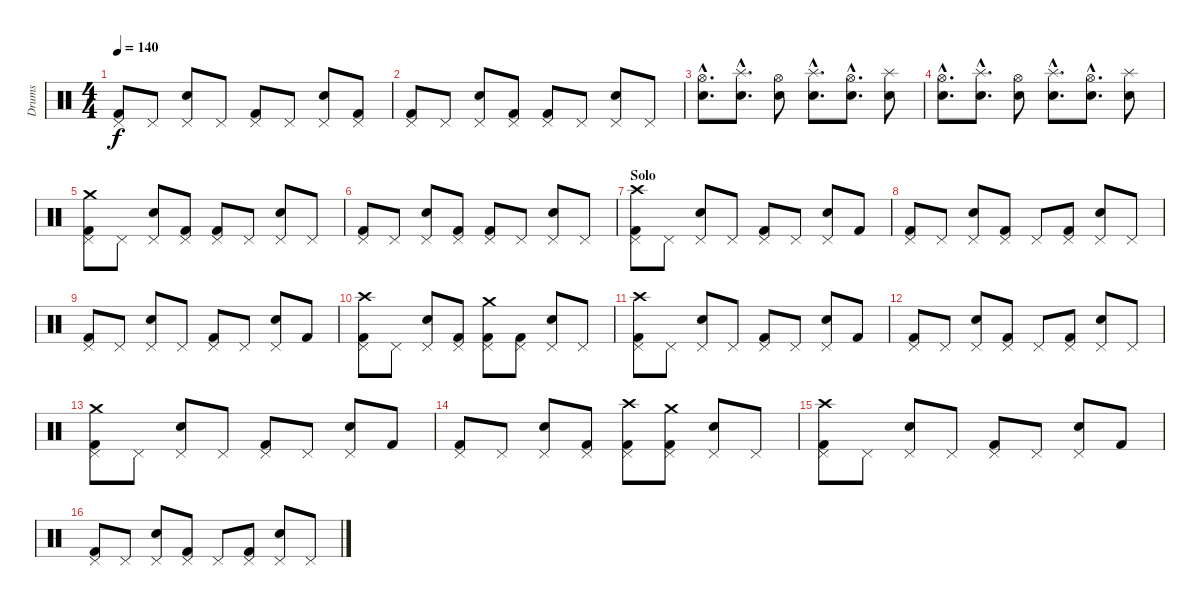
\track ("Drums" "Drums") {instrument percussion}
\staff {score}
\articulation defaults
\ts (4 4)
\tempo 140
\clef neutral
\ks c
("Kick (hit) 2" "Pedal Hi-Hat (hit)").8{dy f} "Pedal Hi-Hat (hit)".8 ("Snare (hit) 2" "Pedal Hi-Hat (hit)").8 "Pedal Hi-Hat (hit)".8 ("Kick (hit) 2" "Pedal Hi-Hat (hit)").8 "Pedal Hi-Hat (hit)".8 ("Snare (hit) 2" "Pedal Hi-Hat (hit)").8 ("Kick (hit) 2" "Pedal Hi-Hat (hit)").8 |
("Kick (hit) 2" "Pedal Hi-Hat (hit)").8 "Pedal Hi-Hat (hit)".8 ("Snare (hit) 2" "Pedal Hi-Hat (hit)").8 ("Kick (hit) 2" "Pedal Hi-Hat (hit)").8 ("Kick (hit) 2" "Pedal Hi-Hat (hit)").8 "Pedal Hi-Hat (hit)".8 ("Snare (hit) 2" "Pedal Hi-Hat (hit)").8 "Pedal Hi-Hat (hit)".8 |
("Snare (hit) 2"{hac} "Hi-Hat (open)"{hac}).8{d} ("Snare (hit) 2"{hac} "Splash (hit)"{hac}).8{d} ("Snare (hit) 2" "Hi-Hat (open)").8 ("Snare (hit) 2"{hac} "Splash (hit)"{hac}).8{d} ("Snare (hit) 2"{hac} "Hi-Hat (open)"{hac}).8{d} ("Snare (hit) 2" "Splash (hit)").8 |
("Snare (hit) 2"{hac} "Hi-Hat (open)"{hac}).8{d} ("Snare (hit) 2"{hac} "Splash (hit)"{hac}).8{d} ("Snare (hit) 2" "Hi-Hat (open)").8 ("Snare (hit) 2"{hac} "Splash (hit)"{hac}).8{d} ("Snare (hit) 2"{hac} "Hi-Hat (open)"{hac}).8{d} ("Snare (hit) 2" "Splash (hit)").8 |
("Kick (hit) 2" "Pedal Hi-Hat (hit)" "Crash medium (hit)").8 "Pedal Hi-Hat (hit)".8 ("Snare (hit) 2" "Pedal Hi-Hat (hit)").8 ("Kick (hit) 2" "Pedal Hi-Hat (hit)").8 ("Kick (hit) 2" "Pedal Hi-Hat (hit)").8 "Pedal Hi-Hat (hit)".8 ("Snare (hit) 2" "Pedal Hi-Hat (hit)").8 "Pedal Hi-Hat (hit)".8 |
("Kick (hit) 2" "Pedal Hi-Hat (hit)").8 "Pedal Hi-Hat (hit)".8 ("Snare (hit) 2" "Pedal Hi-Hat (hit)").8 ("Kick (hit) 2" "Pedal Hi-Hat (hit)").8 ("Kick (hit) 2" "Pedal Hi-Hat (hit)").8 "Pedal Hi-Hat (hit)".8 ("Snare (hit) 2" "Pedal Hi-Hat (hit)").8 "Pedal Hi-Hat (hit)".8 |
\section ("" "Solo")
("Kick (hit) 2" "Pedal Hi-Hat (hit)" "Crash high (hit)").8 "Pedal Hi-Hat (hit)".8 ("Snare (hit) 2" "Pedal Hi-Hat (hit)").8 "Pedal Hi-Hat (hit)".8 ("Kick (hit) 2" "Pedal Hi-Hat (hit)").8 "Pedal Hi-Hat (hit)".8 ("Snare (hit) 2" "Pedal Hi-Hat (hit)").8 "Kick (hit) 2".8 |
("Kick (hit) 2" "Pedal Hi-Hat (hit)").8 "Pedal Hi-Hat (hit)".8 ("Snare (hit) 2" "Pedal Hi-Hat (hit)").8 ("Kick (hit) 2" "Pedal Hi-Hat (hit)").8 "Pedal Hi-Hat (hit)".8 ("Kick (hit) 2" "Pedal Hi-Hat (hit)").8 ("Snare (hit) 2" "Pedal Hi-Hat (hit)").8 "Pedal Hi-Hat (hit)".8 |
("Kick (hit) 2" "Pedal Hi-Hat (hit)").8 "Pedal Hi-Hat (hit)".8 ("Snare (hit) 2" "Pedal Hi-Hat (hit)").8 "Pedal Hi-Hat (hit)".8 ("Kick (hit) 2" "Pedal Hi-Hat (hit)").8 "Pedal Hi-Hat (hit)".8 ("Snare (hit) 2" "Pedal Hi-Hat (hit)").8 "Kick (hit) 2".8 |
("Kick (hit) 2" "Pedal Hi-Hat (hit)" "Crash high (hit)").8 "Pedal Hi-Hat (hit)".8 ("Snare (hit) 2" "Pedal Hi-Hat (hit)").8 ("Kick (hit) 2" "Pedal Hi-Hat (hit)").8 ("Kick (hit) 2" "Pedal Hi-Hat (hit)" "Crash medium (hit)").8 ("Kick (hit) 2" "Pedal Hi-Hat (hit)").8 ("Snare (hit) 2" "Pedal Hi-Hat (hit)").8 "Pedal Hi-Hat (hit)".8 |
("Kick (hit) 2" "Pedal Hi-Hat (hit)" "Crash high (hit)").8 "Pedal Hi-Hat (hit)".8 ("Snare (hit) 2" "Pedal Hi-Hat (hit)").8 "Pedal Hi-Hat (hit)".8 ("Kick (hit) 2" "Pedal Hi-Hat (hit)").8 "Pedal Hi-Hat (hit)".8 ("Snare (hit) 2" "Pedal Hi-Hat (hit)").8 "Kick (hit) 2".8 |
("Kick (hit) 2" "Pedal Hi-Hat (hit)").8 "Pedal Hi-Hat (hit)".8 ("Snare (hit) 2" "Pedal Hi-Hat (hit)").8 ("Kick (hit) 2" "Pedal Hi-Hat (hit)").8 "Pedal Hi-Hat (hit)".8 ("Kick (hit) 2" "Pedal Hi-Hat (hit)").8 ("Snare (hit) 2" "Pedal Hi-Hat (hit)").8 "Pedal Hi-Hat (hit)".8 |
("Kick (hit) 2" "Pedal Hi-Hat (hit)" "Crash medium (hit)").8 "Pedal Hi-Hat (hit)".8 ("Snare (hit) 2" "Pedal Hi-Hat (hit)").8 "Pedal Hi-Hat (hit)".8 ("Kick (hit) 2" "Pedal Hi-Hat (hit)").8 "Pedal Hi-Hat (hit)".8 ("Snare (hit) 2" "Pedal Hi-Hat (hit)").8 "Kick (hit) 2".8 |
("Kick (hit) 2" "Pedal Hi-Hat (hit)").8 "Pedal Hi-Hat (hit)".8 ("Snare (hit) 2" "Pedal Hi-Hat (hit)").8 ("Kick (hit) 2" "Pedal Hi-Hat (hit)").8 ("Kick (hit) 2" "Pedal Hi-Hat (hit)" "Crash high (hit)").8 ("Kick (hit) 2" "Pedal Hi-Hat (hit)" "Crash medium (hit)").8 ("Snare (hit) 2" "Pedal Hi-Hat (hit)").8 "Pedal Hi-Hat (hit)".8 |
("Kick (hit) 2" "Pedal Hi-Hat (hit)" "Crash high (hit)").8 "Pedal Hi-Hat (hit)".8 ("Snare (hit) 2" "Pedal Hi-Hat (hit)").8 "Pedal Hi-Hat (hit)".8 ("Kick (hit) 2" "Pedal Hi-Hat (hit)").8 "Pedal Hi-Hat (hit)".8 ("Snare (hit) 2" "Pedal Hi-Hat (hit)").8 "Kick (hit) 2".8 |
("Kick (hit) 2" "Pedal Hi-Hat (hit)").8 "Pedal Hi-Hat (hit)".8 ("Snare (hit) 2" "Pedal Hi-Hat (hit)").8 ("Kick (hit) 2" "Pedal Hi-Hat (hit)").8 "Pedal Hi-Hat (hit)".8 ("Kick (hit) 2" "Pedal Hi-Hat (hit)").8 ("Snare (hit) 2" "Pedal Hi-Hat (hit)").8 "Pedal Hi-Hat (hit)".8
